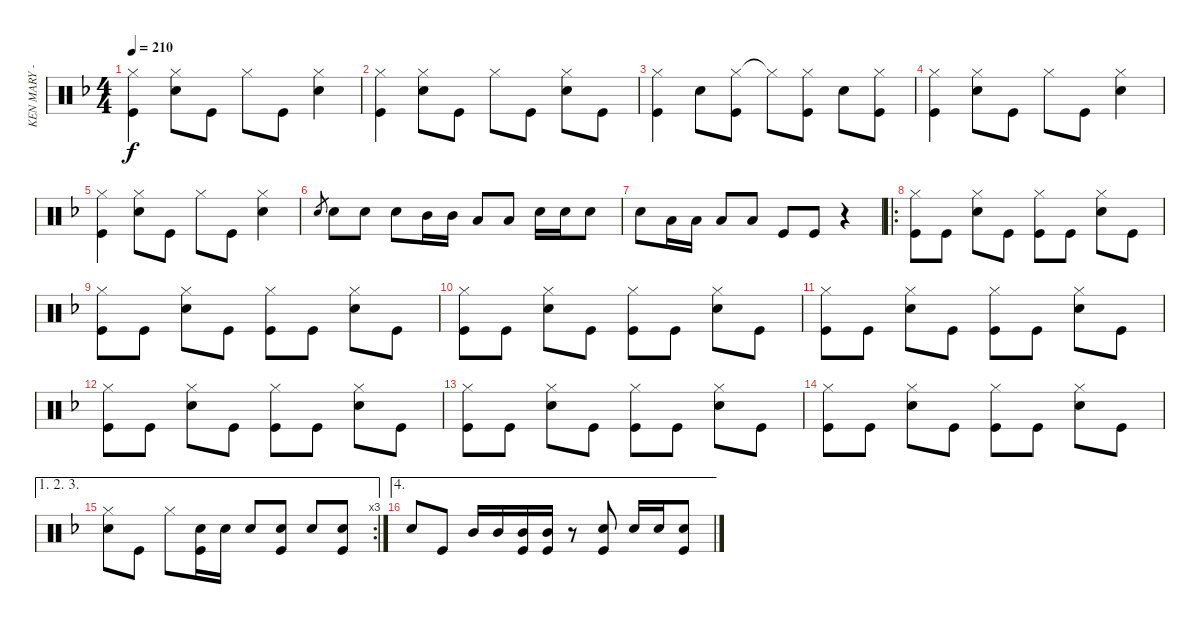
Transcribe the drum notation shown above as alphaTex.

\track ("KEN MARY - DRUMS" "KEN MARY -") {instrument percussion}
\staff {score}
\articulation defaults
\ts (4 4)
\tempo 210
\clef neutral
\ks f
("Hi-Hat (closed)" "Kick (hit)").4{dy f} ("Hi-Hat (closed)" "Snare (hit) 2").8 "Kick (hit)".8 "Hi-Hat (closed)".8 "Kick (hit)".8 ("Hi-Hat (closed)" "Snare (hit) 2").4 |
("Hi-Hat (closed)" "Kick (hit)").4 ("Hi-Hat (closed)" "Snare (hit) 2").8 "Kick (hit)".8 "Hi-Hat (closed)".8 "Kick (hit)".8 ("Hi-Hat (closed)" "Snare (hit) 2").8 "Kick (hit)".8 |
("Hi-Hat (closed)" "Kick (hit)").4 "Snare (hit) 2".8 ("Hi-Hat (closed)" "Kick (hit)").8 "Hi-Hat (closed)"{t}.8 ("Hi-Hat (closed)" "Kick (hit)").8 "Snare (hit) 2".8 ("Hi-Hat (closed)" "Kick (hit)").8 |
("Hi-Hat (closed)" "Kick (hit)").4 ("Hi-Hat (closed)" "Snare (hit) 2").8 "Kick (hit)".8 "Hi-Hat (closed)".8 "Kick (hit)".8 ("Hi-Hat (closed)" "Snare (hit) 2").4 |
("Hi-Hat (closed)" "Kick (hit)").4 ("Hi-Hat (closed)" "Snare (hit) 2").8 "Kick (hit)".8 "Hi-Hat (closed)".8 "Kick (hit)".8 ("Hi-Hat (closed)" "Snare (hit) 2").4 |
"Snare (hit) 2".8{gr} "Snare (hit) 2".8 "Snare (hit) 2".8 "Snare (hit) 2".8 "Mid Tom (hit)".16 "Mid Tom (hit)".16 "Low Tom (hit)".8 "Low Tom (hit)".8 "Snare (hit) 2".16 "Snare (hit) 2".16 "Snare (hit) 2".8 |
"Snare (hit) 2".8 "Low Tom (hit)".16 "Low Tom (hit)".16 "Low Tom (hit)".8 "Low Tom (hit)".8 "Kick (hit)".8 "Kick (hit)".8 r.4 |
\ro
("Hi-Hat (closed)" "Kick (hit)").8 "Kick (hit)".8 ("Hi-Hat (closed)" "Snare (hit) 2").8 "Kick (hit)".8 ("Hi-Hat (closed)" "Kick (hit)").8 "Kick (hit)".8 ("Hi-Hat (closed)" "Snare (hit) 2").8 "Kick (hit)".8 |
("Hi-Hat (closed)" "Kick (hit)").8 "Kick (hit)".8 ("Hi-Hat (closed)" "Snare (hit) 2").8 "Kick (hit)".8 ("Hi-Hat (closed)" "Kick (hit)").8 "Kick (hit)".8 ("Hi-Hat (closed)" "Snare (hit) 2").8 "Kick (hit)".8 |
("Hi-Hat (closed)" "Kick (hit)").8 "Kick (hit)".8 ("Hi-Hat (closed)" "Snare (hit) 2").8 "Kick (hit)".8 ("Hi-Hat (closed)" "Kick (hit)").8 "Kick (hit)".8 ("Hi-Hat (closed)" "Snare (hit) 2").8 "Kick (hit)".8 |
("Hi-Hat (closed)" "Kick (hit)").8 "Kick (hit)".8 ("Hi-Hat (closed)" "Snare (hit) 2").8 "Kick (hit)".8 ("Hi-Hat (closed)" "Kick (hit)").8 "Kick (hit)".8 ("Hi-Hat (closed)" "Snare (hit) 2").8 "Kick (hit)".8 |
("Hi-Hat (closed)" "Kick (hit)").8 "Kick (hit)".8 ("Hi-Hat (closed)" "Snare (hit) 2").8 "Kick (hit)".8 ("Hi-Hat (closed)" "Kick (hit)").8 "Kick (hit)".8 ("Hi-Hat (closed)" "Snare (hit) 2").8 "Kick (hit)".8 |
("Hi-Hat (closed)" "Kick (hit)").8 "Kick (hit)".8 ("Hi-Hat (closed)" "Snare (hit) 2").8 "Kick (hit)".8 ("Hi-Hat (closed)" "Kick (hit)").8 "Kick (hit)".8 ("Hi-Hat (closed)" "Snare (hit) 2").8 "Kick (hit)".8 |
("Hi-Hat (closed)" "Kick (hit)").8 "Kick (hit)".8 ("Hi-Hat (closed)" "Snare (hit) 2").8 "Kick (hit)".8 ("Hi-Hat (closed)" "Kick (hit)").8 "Kick (hit)".8 ("Hi-Hat (closed)" "Snare (hit) 2").8 "Kick (hit)".8 |
\ae (1 2 3)
\rc 3
("Hi-Hat (closed)" "Snare (hit) 2").8 "Kick (hit)".8 "Hi-Hat (closed)".8 ("Snare (hit) 2" "Kick (hit)").16 "Snare (hit) 2".16 "Snare (hit) 2".8 ("Snare (hit) 2" "Kick (hit)").8 "Snare (hit) 2".8 ("Snare (hit) 2" "Kick (hit)").8 |
\ae 4 "Snare (hit) 2".8 "Kick (hit)".8 "Mid Tom (hit)".16 "Mid Tom (hit)".16
("Mid Tom (hit)" "Kick (hit)").16 ("Mid Tom (hit)" "Kick (hit)").16 r.8 ("Snare (hit) 2" "Kick (hit)").8 "Snare (hit) 2".16 "Snare (hit) 2".16 ("Snare (hit) 2" "Kick (hit)").8
